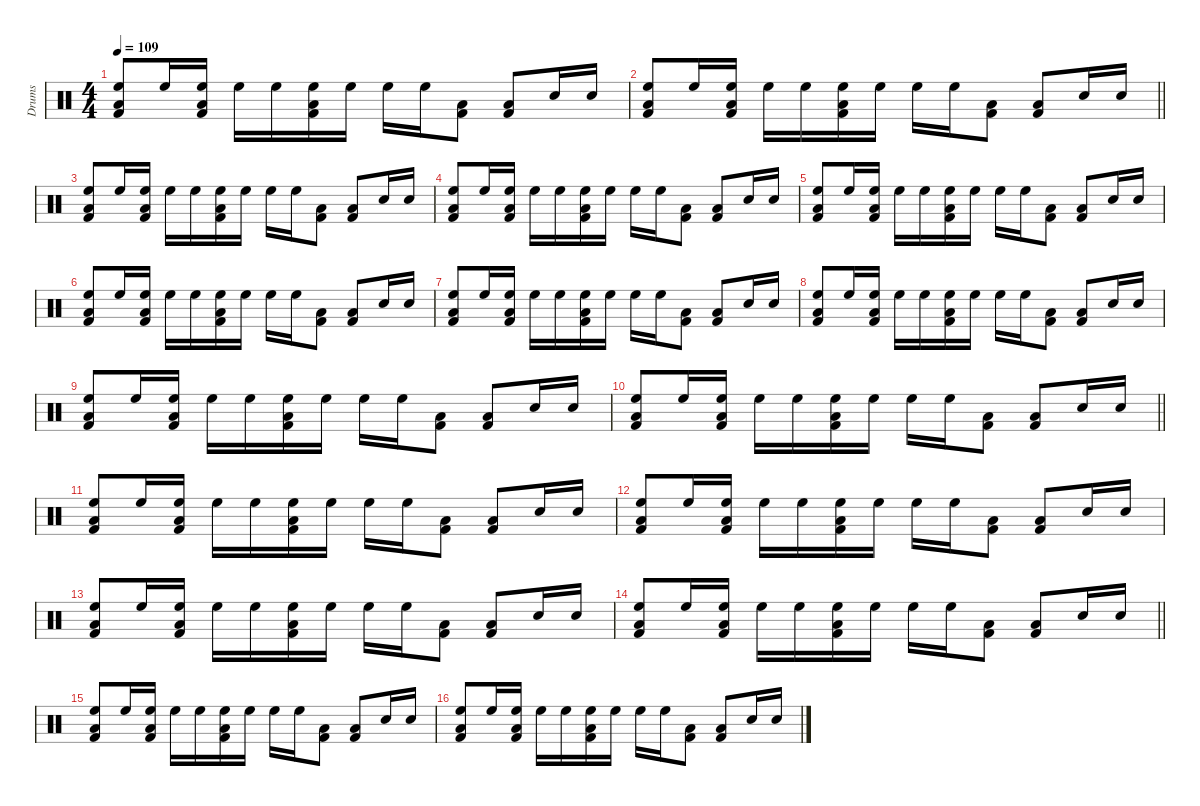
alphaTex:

\defaultSystemsLayout 4
\hideDynamics
\bracketExtendMode nobrackets
\otherSystemsTrackNameOrientation horizontal
\track ("Drums" "Drums") {instrument percussion}
\staff {score}
\articulation defaults
\ts (4 4)
\tempo 109
\clef neutral
\scale
0.5
\ks c
("Kick (hit) 2" "Low Tom (hit)" "High Floor Tom (hit)").8{dy mp beam Up} "High Floor Tom (hit)".16{beam Up} ("Kick (hit) 2" "Low Tom (hit)" "High Floor Tom (hit)").16{beam Up} "High Floor Tom (hit)".16{beam Down} "High Floor Tom (hit)".16{beam Down} ("Kick (hit) 2" "Low Tom (hit)" "High Floor Tom (hit)").16{beam Down} "High Floor Tom (hit)".16{beam Down} "High Floor Tom (hit)".16{beam Down} "High Floor Tom (hit)".16{beam Down} ("Kick (hit) 2" "Low Tom (hit)").8{beam Down} ("Kick (hit) 2" "Low Tom (hit)").8{beam Up} "Snare (hit) 2".16{beam Up} "Snare (hit) 2".16{beam Up} |
\scale
0.5
\barLineRight lightlight
("Kick (hit) 2" "Low Tom (hit)" "High Floor Tom (hit)").8{beam Up} "High Floor Tom (hit)".16{beam Up} ("Kick (hit) 2" "Low Tom (hit)" "High Floor Tom (hit)").16{beam Up} "High Floor Tom (hit)".16{beam Down} "High Floor Tom (hit)".16{beam Down} ("Kick (hit) 2" "Low Tom (hit)" "High Floor Tom (hit)").16{beam Down} "High Floor Tom (hit)".16{beam Down} "High Floor Tom (hit)".16{beam Down} "High Floor Tom (hit)".16{beam Down} ("Kick (hit) 2" "Low Tom (hit)").8{beam Down} ("Kick (hit) 2" "Low Tom (hit)").8{beam Up} "Snare (hit) 2".16{beam Up} "Snare (hit) 2".16{beam Up} |
\scale
0.5 ("Kick (hit) 2" "Low Tom (hit)" "High Floor Tom (hit)").8{beam Up} "High Floor Tom (hit)".16{beam Up} ("Kick (hit) 2" "Low Tom (hit)" "High Floor Tom (hit)").16{beam Up} "High Floor Tom (hit)".16{beam Down} "High Floor Tom (hit)".16{beam Down} ("Kick (hit) 2" "Low Tom (hit)" "High Floor Tom (hit)").16{beam Down} "High Floor Tom (hit)".16{beam Down} "High Floor Tom (hit)".16{beam Down} "High Floor Tom (hit)".16{beam Down} ("Kick (hit) 2" "Low Tom (hit)").8{beam Down} ("Kick (hit) 2" "Low Tom (hit)").8{beam Up} "Snare (hit) 2".16{beam Up} "Snare (hit) 2".16{beam Up} |
\scale
0.5 ("Kick (hit) 2" "Low Tom (hit)" "High Floor Tom (hit)").8{beam Up} "High Floor Tom (hit)".16{beam Up} ("Kick (hit) 2" "Low Tom (hit)" "High Floor Tom (hit)").16{beam Up} "High Floor Tom (hit)".16{beam Down} "High Floor Tom (hit)".16{beam Down} ("Kick (hit) 2" "Low Tom (hit)" "High Floor Tom (hit)").16{beam Down} "High Floor Tom (hit)".16{beam Down} "High Floor Tom (hit)".16{beam Down} "High Floor Tom (hit)".16{beam Down} ("Kick (hit) 2" "Low Tom (hit)").8{beam Down} ("Kick (hit) 2" "Low Tom (hit)").8{beam Up} "Snare (hit) 2".16{beam Up} "Snare (hit) 2".16{beam Up} |
\scale
0.5 ("Kick (hit) 2" "Low Tom (hit)" "High Floor Tom (hit)").8{beam Up} "High Floor Tom (hit)".16{beam Up} ("Kick (hit) 2" "Low Tom (hit)" "High Floor Tom (hit)").16{beam Up} "High Floor Tom (hit)".16{beam Down} "High Floor Tom (hit)".16{beam Down} ("Kick (hit) 2" "Low Tom (hit)" "High Floor Tom (hit)").16{beam Down} "High Floor Tom (hit)".16{beam Down} "High Floor Tom (hit)".16{beam Down} "High Floor Tom (hit)".16{beam Down} ("Kick (hit) 2" "Low Tom (hit)").8{beam Down} ("Kick (hit) 2" "Low Tom (hit)").8{beam Up} "Snare (hit) 2".16{beam Up} "Snare (hit) 2".16{beam Up} |
\scale
0.5 ("Kick (hit) 2" "Low Tom (hit)" "High Floor Tom (hit)").8{beam Up} "High Floor Tom (hit)".16{beam Up} ("Kick (hit) 2" "Low Tom (hit)" "High Floor Tom (hit)").16{beam Up} "High Floor Tom (hit)".16{beam Down} "High Floor Tom (hit)".16{beam Down} ("Kick (hit) 2" "Low Tom (hit)" "High Floor Tom (hit)").16{beam Down} "High Floor Tom (hit)".16{beam Down} "High Floor Tom (hit)".16{beam Down} "High Floor Tom (hit)".16{beam Down} ("Kick (hit) 2" "Low Tom (hit)").8{beam Down} ("Kick (hit) 2" "Low Tom (hit)").8{beam Up} "Snare (hit) 2".16{beam Up} "Snare (hit) 2".16{beam Up} |
\scale
0.5 ("Kick (hit) 2" "Low Tom (hit)" "High Floor Tom (hit)").8{beam Up} "High Floor Tom (hit)".16{beam Up} ("Kick (hit) 2" "Low Tom (hit)" "High Floor Tom (hit)").16{beam Up} "High Floor Tom (hit)".16{beam Down} "High Floor Tom (hit)".16{beam Down} ("Kick (hit) 2" "Low Tom (hit)" "High Floor Tom (hit)").16{beam Down} "High Floor Tom (hit)".16{beam Down} "High Floor Tom (hit)".16{beam Down} "High Floor Tom (hit)".16{beam Down} ("Kick (hit) 2" "Low Tom (hit)").8{beam Down} ("Kick (hit) 2" "Low Tom (hit)").8{beam Up} "Snare (hit) 2".16{beam Up} "Snare (hit) 2".16{beam Up} |
\scale
0.5 ("Kick (hit) 2" "Low Tom (hit)" "High Floor Tom (hit)").8{beam Up} "High Floor Tom (hit)".16{beam Up} ("Kick (hit) 2" "Low Tom (hit)" "High Floor Tom (hit)").16{beam Up} "High Floor Tom (hit)".16{beam Down} "High Floor Tom (hit)".16{beam Down} ("Kick (hit) 2" "Low Tom (hit)" "High Floor Tom (hit)").16{beam Down} "High Floor Tom (hit)".16{beam Down} "High Floor Tom (hit)".16{beam Down} "High Floor Tom (hit)".16{beam Down} ("Kick (hit) 2" "Low Tom (hit)").8{beam Down} ("Kick (hit) 2" "Low Tom (hit)").8{beam Up} "Snare (hit) 2".16{beam Up} "Snare (hit) 2".16{beam Up} |
\scale
0.5 ("Kick (hit) 2" "Low Tom (hit)" "High Floor Tom (hit)").8{beam Up} "High Floor Tom (hit)".16{beam Up} ("Kick (hit) 2" "Low Tom (hit)" "High Floor Tom (hit)").16{beam Up} "High Floor Tom (hit)".16{beam Down} "High Floor Tom (hit)".16{beam Down} ("Kick (hit) 2" "Low Tom (hit)" "High Floor Tom (hit)").16{beam Down} "High Floor Tom (hit)".16{beam Down} "High Floor Tom (hit)".16{beam Down} "High Floor Tom (hit)".16{beam Down} ("Kick (hit) 2" "Low Tom (hit)").8{beam Down} ("Kick (hit) 2" "Low Tom (hit)").8{beam Up} "Snare (hit) 2".16{beam Up} "Snare (hit) 2".16{beam Up} |
\scale
0.5
\barLineRight lightlight
("Kick (hit) 2" "Low Tom (hit)" "High Floor Tom (hit)").8{beam Up} "High Floor Tom (hit)".16{beam Up} ("Kick (hit) 2" "Low Tom (hit)" "High Floor Tom (hit)").16{beam Up} "High Floor Tom (hit)".16{beam Down} "High Floor Tom (hit)".16{beam Down} ("Kick (hit) 2" "Low Tom (hit)" "High Floor Tom (hit)").16{beam Down} "High Floor Tom (hit)".16{beam Down} "High Floor Tom (hit)".16{beam Down} "High Floor Tom (hit)".16{beam Down} ("Kick (hit) 2" "Low Tom (hit)").8{beam Down} ("Kick (hit) 2" "Low Tom (hit)").8{beam Up} "Snare (hit) 2".16{beam Up} "Snare (hit) 2".16{beam Up} |
\scale
0.5 ("Kick (hit) 2" "Low Tom (hit)" "High Floor Tom (hit)").8{beam Up} "High Floor Tom (hit)".16{beam Up} ("Kick (hit) 2" "Low Tom (hit)" "High Floor Tom (hit)").16{beam Up} "High Floor Tom (hit)".16{beam Down} "High Floor Tom (hit)".16{beam Down} ("Kick (hit) 2" "Low Tom (hit)" "High Floor Tom (hit)").16{beam Down} "High Floor Tom (hit)".16{beam Down} "High Floor Tom (hit)".16{beam Down} "High Floor Tom (hit)".16{beam Down} ("Kick (hit) 2" "Low Tom (hit)").8{beam Down} ("Kick (hit) 2" "Low Tom (hit)").8{beam Up} "Snare (hit) 2".16{beam Up} "Snare (hit) 2".16{beam Up} |
\scale
0.5 ("Kick (hit) 2" "Low Tom (hit)" "High Floor Tom (hit)").8{beam Up} "High Floor Tom (hit)".16{beam Up} ("Kick (hit) 2" "Low Tom (hit)" "High Floor Tom (hit)").16{beam Up} "High Floor Tom (hit)".16{beam Down} "High Floor Tom (hit)".16{beam Down} ("Kick (hit) 2" "Low Tom (hit)" "High Floor Tom (hit)").16{beam Down} "High Floor Tom (hit)".16{beam Down} "High Floor Tom (hit)".16{beam Down} "High Floor Tom (hit)".16{beam Down} ("Kick (hit) 2" "Low Tom (hit)").8{beam Down} ("Kick (hit) 2" "Low Tom (hit)").8{beam Up} "Snare (hit) 2".16{beam Up} "Snare (hit) 2".16{beam Up} |
\scale
0.5 ("Kick (hit) 2" "Low Tom (hit)" "High Floor Tom (hit)").8{beam Up} "High Floor Tom (hit)".16{beam Up} ("Kick (hit) 2" "Low Tom (hit)" "High Floor Tom (hit)").16{beam Up} "High Floor Tom (hit)".16{beam Down} "High Floor Tom (hit)".16{beam Down} ("Kick (hit) 2" "Low Tom (hit)" "High Floor Tom (hit)").16{beam Down} "High Floor Tom (hit)".16{beam Down} "High Floor Tom (hit)".16{beam Down} "High Floor Tom (hit)".16{beam Down} ("Kick (hit) 2" "Low Tom (hit)").8{beam Down} ("Kick (hit) 2" "Low Tom (hit)").8{beam Up} "Snare (hit) 2".16{beam Up} "Snare (hit) 2".16{beam Up} |
\scale
0.5
\barLineRight lightlight
("Kick (hit) 2" "Low Tom (hit)" "High Floor Tom (hit)").8{beam Up} "High Floor Tom (hit)".16{beam Up} ("Kick (hit) 2" "Low Tom (hit)" "High Floor Tom (hit)").16{beam Up} "High Floor Tom (hit)".16{beam Down} "High Floor Tom (hit)".16{beam Down} ("Kick (hit) 2" "Low Tom (hit)" "High Floor Tom (hit)").16{beam Down} "High Floor Tom (hit)".16{beam Down} "High Floor Tom (hit)".16{beam Down} "High Floor Tom (hit)".16{beam Down} ("Kick (hit) 2" "Low Tom (hit)").8{beam Down} ("Kick (hit) 2" "Low Tom (hit)").8{beam Up} "Snare (hit) 2".16{beam Up} "Snare (hit) 2".16{beam Up} |
\scale
0.5 ("Kick (hit) 2" "Low Tom (hit)" "High Floor Tom (hit)").8{beam Up} "High Floor Tom (hit)".16{beam Up} ("Kick (hit) 2" "Low Tom (hit)" "High Floor Tom (hit)").16{beam Up} "High Floor Tom (hit)".16{beam Down} "High Floor Tom (hit)".16{beam Down} ("Kick (hit) 2" "Low Tom (hit)" "High Floor Tom (hit)").16{beam Down} "High Floor Tom (hit)".16{beam Down} "High Floor Tom (hit)".16{beam Down} "High Floor Tom (hit)".16{beam Down} ("Kick (hit) 2" "Low Tom (hit)").8{beam Down} ("Kick (hit) 2" "Low Tom (hit)").8{beam Up} "Snare (hit) 2".16{beam Up} "Snare (hit) 2".16{beam Up} |
\scale
0.5 ("Kick (hit) 2" "Low Tom (hit)" "High Floor Tom (hit)").8{beam Up} "High Floor Tom (hit)".16{beam Up} ("Kick (hit) 2" "Low Tom (hit)" "High Floor Tom (hit)").16{beam Up} "High Floor Tom (hit)".16{beam Down} "High Floor Tom (hit)".16{beam Down} ("Kick (hit) 2" "Low Tom (hit)" "High Floor Tom (hit)").16{beam Down} "High Floor Tom (hit)".16{beam Down} "High Floor Tom (hit)".16{beam Down} "High Floor Tom (hit)".16{beam Down} ("Kick (hit) 2" "Low Tom (hit)").8{beam Down} ("Kick (hit) 2" "Low Tom (hit)").8{beam Up} "Snare (hit) 2".16{beam Up} "Snare (hit) 2".16{beam Up}
